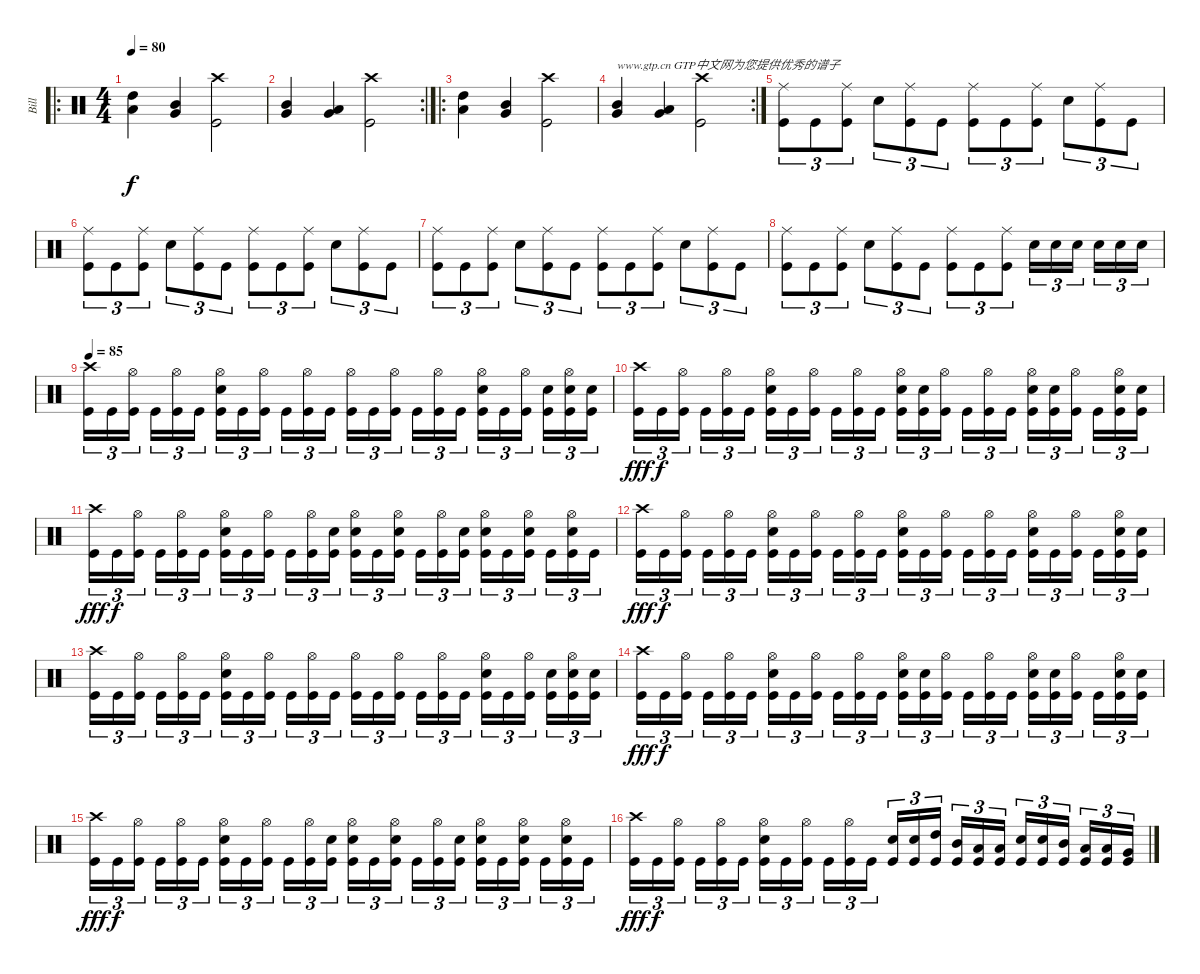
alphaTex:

\track ("Bill" "Bill") {instrument percussion}
\staff {score}
\articulation defaults
\ro
\ts (4 4)
\tempo 80
\clef neutral
\ks c
("High Tom (hit)" "Low Floor Tom (hit)").4{dy f} ("Mid Tom (hit)" "Very Low Tom (hit)").4 ("Crash high (hit)" "Kick (hit)").2 |
\rc 2
("Mid Tom (hit)" "Very Low Tom (hit)").4 ("Low Tom (hit)" "Very Low Tom (hit)").4 ("Crash high (hit)" "Kick (hit)").2 |
\ro
("High Tom (hit)" "Low Floor Tom (hit)").4 ("Mid Tom (hit)" "Very Low Tom (hit)").4 ("Crash high (hit)" "Kick (hit)").2 |
\rc 2
("Mid Tom (hit)" "Very Low Tom (hit)").4{txt "www.gtp.cn GTP中文网为您提供优秀的谱子"} ("Low Tom (hit)" "Very Low Tom (hit)").4 ("Crash high (hit)" "Kick (hit)").2 |
("Ride (middle)" "Kick (hit)").8{tu (3 2)} "Kick (hit)".8{tu (3 2)} ("Ride (middle)" "Kick (hit)").8{tu (3 2)} "Snare (hit) 2".8{tu (3 2)} ("Ride (middle)" "Kick (hit)").8{tu (3 2)} "Kick (hit)".8{tu (3 2)} ("Ride (middle)" "Kick (hit)").8{tu (3 2)} "Kick (hit)".8{tu (3 2)} ("Ride (middle)" "Kick (hit)").8{tu (3 2)} "Snare (hit) 2".8{tu (3 2)} ("Ride (middle)" "Kick (hit)").8{tu (3 2)} "Kick (hit)".8{tu (3 2)} |
("Ride (middle)" "Kick (hit)").8{tu (3 2)} "Kick (hit)".8{tu (3 2)} ("Ride (middle)" "Kick (hit)").8{tu (3 2)} "Snare (hit) 2".8{tu (3 2)} ("Ride (middle)" "Kick (hit)").8{tu (3 2)} "Kick (hit)".8{tu (3 2)} ("Ride (middle)" "Kick (hit)").8{tu (3 2)} "Kick (hit)".8{tu (3 2)} ("Ride (middle)" "Kick (hit)").8{tu (3 2)} "Snare (hit) 2".8{tu (3 2)} ("Ride (middle)" "Kick (hit)").8{tu (3 2)} "Kick (hit)".8{tu (3 2)} |
("Ride (middle)" "Kick (hit)").8{tu (3 2)} "Kick (hit)".8{tu (3 2)} ("Ride (middle)" "Kick (hit)").8{tu (3 2)} "Snare (hit) 2".8{tu (3 2)} ("Ride (middle)" "Kick (hit)").8{tu (3 2)} "Kick (hit)".8{tu (3 2)} ("Ride (middle)" "Kick (hit)").8{tu (3 2)} "Kick (hit)".8{tu (3 2)} ("Ride (middle)" "Kick (hit)").8{tu (3 2)} "Snare (hit) 2".8{tu (3 2)} ("Ride (middle)" "Kick (hit)").8{tu (3 2)} "Kick (hit)".8{tu (3 2)} |
("Ride (middle)" "Kick (hit)").8{tu (3 2)} "Kick (hit)".8{tu (3 2)} ("Ride (middle)" "Kick (hit)").8{tu (3 2)} "Snare (hit) 2".8{tu (3 2)} ("Ride (middle)" "Kick (hit)").8{tu (3 2)} "Kick (hit)".8{tu (3 2)} ("Ride (middle)" "Kick (hit)").8{tu (3 2)} "Kick (hit)".8{tu (3 2)} ("Ride (middle)" "Kick (hit)").8{tu (3 2)} "Snare (hit) 2".16{tu (3 2)} "Snare (hit) 2".16{tu (3 2)} "Snare (hit) 2".16{tu (3 2)} "Snare (hit) 2".16{tu (3 2)} "Snare (hit) 2".16{tu (3 2)} "Snare (hit) 2".16{tu (3 2)} |
\tempo 85
("Crash high (hit)" "Kick (hit)").16{tu (3 2)} "Kick (hit)".16{tu (3 2)} ("Hi-Hat (open)" "Kick (hit)").16{tu (3 2)} "Kick (hit)".16{tu (3 2)} ("Hi-Hat (open)" "Kick (hit)").16{tu (3 2)} "Kick (hit)".16{tu (3 2)} ("Snare (hit) 2" "Hi-Hat (open)" "Kick (hit)").16{tu (3 2)} "Kick (hit)".16{tu (3 2)} ("Hi-Hat (open)" "Kick (hit)").16{tu (3 2)} "Kick (hit)".16{tu (3 2)} ("Hi-Hat (open)" "Kick (hit)").16{tu (3 2)} "Kick (hit)".16{tu (3 2)} ("Hi-Hat (open)" "Kick (hit)").16{tu (3 2)} "Kick (hit)".16{tu (3 2)} ("Hi-Hat (open)" "Kick (hit)").16{tu (3 2)} "Kick (hit)".16{tu (3 2)} ("Hi-Hat (open)" "Kick (hit)").16{tu (3 2)} "Kick (hit)".16{tu (3 2)} ("Snare (hit) 2" "Hi-Hat (open)" "Kick (hit)").16{tu (3 2)} "Kick (hit)".16{tu (3 2)} ("Hi-Hat (open)" "Kick (hit)").16{tu (3 2)} ("Snare (hit) 2" "Kick (hit)").16{tu (3 2)} ("Snare (hit) 2" "Hi-Hat (open)" "Kick (hit)").16{tu (3 2)} ("Snare (hit) 2" "Kick (hit)").16{tu (3 2)} |
("Crash high (hit)" "Kick (hit)").16{tu (3 2) dy fff} "Kick (hit)".16{tu (3 2) dy f} ("Hi-Hat (open)" "Kick (hit)").16{tu (3 2)} "Kick (hit)".16{tu (3 2)} ("Hi-Hat (open)" "Kick (hit)").16{tu (3 2)} "Kick (hit)".16{tu (3 2)} ("Snare (hit) 2" "Hi-Hat (open)" "Kick (hit)").16{tu (3 2)} "Kick (hit)".16{tu (3 2)} ("Hi-Hat (open)" "Kick (hit)").16{tu (3 2)} "Kick (hit)".16{tu (3 2)} ("Hi-Hat (open)" "Kick (hit)").16{tu (3 2)} "Kick (hit)".16{tu (3 2)} ("Snare (hit) 2" "Hi-Hat (open)" "Kick (hit)").16{tu (3 2)} ("Snare (hit) 2" "Kick (hit)").16{tu (3 2)} ("Hi-Hat (open)" "Kick (hit)").16{tu (3 2)} "Kick (hit)".16{tu (3 2)} ("Hi-Hat (open)" "Kick (hit)").16{tu (3 2)} "Kick (hit)".16{tu (3 2)} ("Snare (hit) 2" "Hi-Hat (open)" "Kick (hit)").16{tu (3 2)} ("Snare (hit) 2" "Kick (hit)").16{tu (3 2)} ("Hi-Hat (open)" "Kick (hit)").16{tu (3 2)} "Kick (hit)".16{tu (3 2)} ("Snare (hit) 2" "Hi-Hat (open)" "Kick (hit)").16{tu (3 2)} ("Snare (hit) 2" "Kick (hit)").16{tu (3 2)} |
("Crash high (hit)" "Kick (hit)").16{tu (3 2) dy fff} "Kick (hit)".16{tu (3 2) dy f} ("Hi-Hat (open)" "Kick (hit)").16{tu (3 2)} "Kick (hit)".16{tu (3 2)} ("Hi-Hat (open)" "Kick (hit)").16{tu (3 2)} "Kick (hit)".16{tu (3 2)} ("Snare (hit) 2" "Hi-Hat (open)" "Kick (hit)").16{tu (3 2)} "Kick (hit)".16{tu (3 2)} ("Hi-Hat (open)" "Kick (hit)").16{tu (3 2)} "Kick (hit)".16{tu (3 2)} ("Hi-Hat (open)" "Kick (hit)").16{tu (3 2)} ("Snare (hit) 2" "Kick (hit)").16{tu (3 2)} ("Snare (hit) 2" "Hi-Hat (open)" "Kick (hit)").16{tu (3 2)} "Kick (hit)".16{tu (3 2)} ("Snare (hit) 2" "Hi-Hat (open)" "Kick (hit)").16{tu (3 2)} "Kick (hit)".16{tu (3 2)} ("Hi-Hat (open)" "Kick (hit)").16{tu (3 2)} ("Snare (hit) 2" "Kick (hit)").16{tu (3 2)} ("Snare (hit) 2" "Hi-Hat (open)" "Kick (hit)").16{tu (3 2)} "Kick (hit)".16{tu (3 2)} ("Snare (hit) 2" "Hi-Hat (open)" "Kick (hit)").16{tu (3 2)} "Kick (hit)".16{tu (3 2)} ("Snare (hit) 2" "Hi-Hat (open)" "Kick (hit)").16{tu (3 2)} "Kick (hit)".16{tu (3 2)} |
("Crash high (hit)" "Kick (hit)").16{tu (3 2) dy fff} "Kick (hit)".16{tu (3 2) dy f} ("Hi-Hat (open)" "Kick (hit)").16{tu (3 2)} "Kick (hit)".16{tu (3 2)} ("Hi-Hat (open)" "Kick (hit)").16{tu (3 2)} "Kick (hit)".16{tu (3 2)} ("Snare (hit) 2" "Hi-Hat (open)" "Kick (hit)").16{tu (3 2)} "Kick (hit)".16{tu (3 2)} ("Hi-Hat (open)" "Kick (hit)").16{tu (3 2)} "Kick (hit)".16{tu (3 2)} ("Hi-Hat (open)" "Kick (hit)").16{tu (3 2)} "Kick (hit)".16{tu (3 2)} ("Snare (hit) 2" "Hi-Hat (open)" "Kick (hit)").16{tu (3 2)} "Kick (hit)".16{tu (3 2)} ("Hi-Hat (open)" "Kick (hit)").16{tu (3 2)} "Kick (hit)".16{tu (3 2)} ("Hi-Hat (open)" "Kick (hit)").16{tu (3 2)} "Kick (hit)".16{tu (3 2)} ("Snare (hit) 2" "Hi-Hat (open)" "Kick (hit)").16{tu (3 2)} "Kick (hit)".16{tu (3 2)} ("Hi-Hat (open)" "Kick (hit)").16{tu (3 2)} "Kick (hit)".16{tu (3 2)} ("Snare (hit) 2" "Hi-Hat (open)" "Kick (hit)").16{tu (3 2)} ("Snare (hit) 2" "Kick (hit)").16{tu (3 2)} |
("Crash high (hit)" "Kick (hit)").16{tu (3 2)} "Kick (hit)".16{tu (3 2)} ("Hi-Hat (open)" "Kick (hit)").16{tu (3 2)} "Kick (hit)".16{tu (3 2)} ("Hi-Hat (open)" "Kick (hit)").16{tu (3 2)} "Kick (hit)".16{tu (3 2)} ("Snare (hit) 2" "Hi-Hat (open)" "Kick (hit)").16{tu (3 2)} "Kick (hit)".16{tu (3 2)} ("Hi-Hat (open)" "Kick (hit)").16{tu (3 2)} "Kick (hit)".16{tu (3 2)} ("Hi-Hat (open)" "Kick (hit)").16{tu (3 2)} "Kick (hit)".16{tu (3 2)} ("Hi-Hat (open)" "Kick (hit)").16{tu (3 2)} "Kick (hit)".16{tu (3 2)} ("Hi-Hat (open)" "Kick (hit)").16{tu (3 2)} "Kick (hit)".16{tu (3 2)} ("Hi-Hat (open)" "Kick (hit)").16{tu (3 2)} "Kick (hit)".16{tu (3 2)} ("Snare (hit) 2" "Hi-Hat (open)" "Kick (hit)").16{tu (3 2)} "Kick (hit)".16{tu (3 2)} ("Hi-Hat (open)" "Kick (hit)").16{tu (3 2)} ("Snare (hit) 2" "Kick (hit)").16{tu (3 2)} ("Snare (hit) 2" "Hi-Hat (open)" "Kick (hit)").16{tu (3 2)} ("Snare (hit) 2" "Kick (hit)").16{tu (3 2)} |
("Crash high (hit)" "Kick (hit)").16{tu (3 2) dy fff} "Kick (hit)".16{tu (3 2) dy f} ("Hi-Hat (open)" "Kick (hit)").16{tu (3 2)} "Kick (hit)".16{tu (3 2)} ("Hi-Hat (open)" "Kick (hit)").16{tu (3 2)} "Kick (hit)".16{tu (3 2)} ("Snare (hit) 2" "Hi-Hat (open)" "Kick (hit)").16{tu (3 2)} "Kick (hit)".16{tu (3 2)} ("Hi-Hat (open)" "Kick (hit)").16{tu (3 2)} "Kick (hit)".16{tu (3 2)} ("Hi-Hat (open)" "Kick (hit)").16{tu (3 2)} "Kick (hit)".16{tu (3 2)} ("Snare (hit) 2" "Hi-Hat (open)" "Kick (hit)").16{tu (3 2)} ("Snare (hit) 2" "Kick (hit)").16{tu (3 2)} ("Hi-Hat (open)" "Kick (hit)").16{tu (3 2)} "Kick (hit)".16{tu (3 2)} ("Hi-Hat (open)" "Kick (hit)").16{tu (3 2)} "Kick (hit)".16{tu (3 2)} ("Snare (hit) 2" "Hi-Hat (open)" "Kick (hit)").16{tu (3 2)} ("Snare (hit) 2" "Kick (hit)").16{tu (3 2)} ("Hi-Hat (open)" "Kick (hit)").16{tu (3 2)} "Kick (hit)".16{tu (3 2)} ("Snare (hit) 2" "Hi-Hat (open)" "Kick (hit)").16{tu (3 2)} ("Snare (hit) 2" "Kick (hit)").16{tu (3 2)} |
("Crash high (hit)" "Kick (hit)").16{tu (3 2) dy fff} "Kick (hit)".16{tu (3 2) dy f} ("Hi-Hat (open)" "Kick (hit)").16{tu (3 2)} "Kick (hit)".16{tu (3 2)} ("Hi-Hat (open)" "Kick (hit)").16{tu (3 2)} "Kick (hit)".16{tu (3 2)} ("Snare (hit) 2" "Hi-Hat (open)" "Kick (hit)").16{tu (3 2)} "Kick (hit)".16{tu (3 2)} ("Hi-Hat (open)" "Kick (hit)").16{tu (3 2)} "Kick (hit)".16{tu (3 2)} ("Hi-Hat (open)" "Kick (hit)").16{tu (3 2)} ("Snare (hit) 2" "Kick (hit)").16{tu (3 2)} ("Snare (hit) 2" "Hi-Hat (open)" "Kick (hit)").16{tu (3 2)} "Kick (hit)".16{tu (3 2)} ("Snare (hit) 2" "Hi-Hat (open)" "Kick (hit)").16{tu (3 2)} "Kick (hit)".16{tu (3 2)} ("Hi-Hat (open)" "Kick (hit)").16{tu (3 2)} ("Snare (hit) 2" "Kick (hit)").16{tu (3 2)} ("Snare (hit) 2" "Hi-Hat (open)" "Kick (hit)").16{tu (3 2)} "Kick (hit)".16{tu (3 2)} ("Snare (hit) 2" "Hi-Hat (open)" "Kick (hit)").16{tu (3 2)} "Kick (hit)".16{tu (3 2)} ("Snare (hit) 2" "Hi-Hat (open)" "Kick (hit)").16{tu (3 2)} "Kick (hit)".16{tu (3 2)} |
("Crash high (hit)" "Kick (hit)").16{tu (3 2) dy fff} "Kick (hit)".16{tu (3 2) dy f} ("Hi-Hat (open)" "Kick (hit)").16{tu (3 2)} "Kick (hit)".16{tu (3 2)} ("Hi-Hat (open)" "Kick (hit)").16{tu (3 2)} "Kick (hit)".16{tu (3 2)} ("Snare (hit) 2" "Hi-Hat (open)" "Kick (hit)").16{tu (3 2)} "Kick (hit)".16{tu (3 2)} ("Hi-Hat (open)" "Kick (hit)").16{tu (3 2)} "Kick (hit)".16{tu (3 2)} ("Hi-Hat (open)" "Kick (hit)").16{tu (3 2)} "Kick (hit)".16{tu (3 2)} ("Snare (hit) 2" "Kick (hit)").16{tu (3 2)} ("Snare (hit) 2" "Kick (hit)").16{tu (3 2)} ("High Tom (hit)" "Kick (hit)").16{tu (3 2)} ("Mid Tom (hit)" "Kick (hit)").16{tu (3 2)} ("Low Tom (hit)" "Kick (hit)").16{tu (3 2)} ("Low Floor Tom (hit)" "Kick (hit)").16{tu (3 2)} ("Snare (hit) 2" "Kick (hit)").16{tu (3 2)} ("Snare (hit) 2" "Kick (hit)").16{tu (3 2)} ("Mid Tom (hit)" "Kick (hit)").16{tu (3 2)} ("Low Tom (hit)" "Kick (hit)").16{tu (3 2)} ("Low Floor Tom (hit)" "Kick (hit)").16{tu (3 2)} ("Very Low Tom (hit)" "Kick (hit)").16{tu (3 2)}
